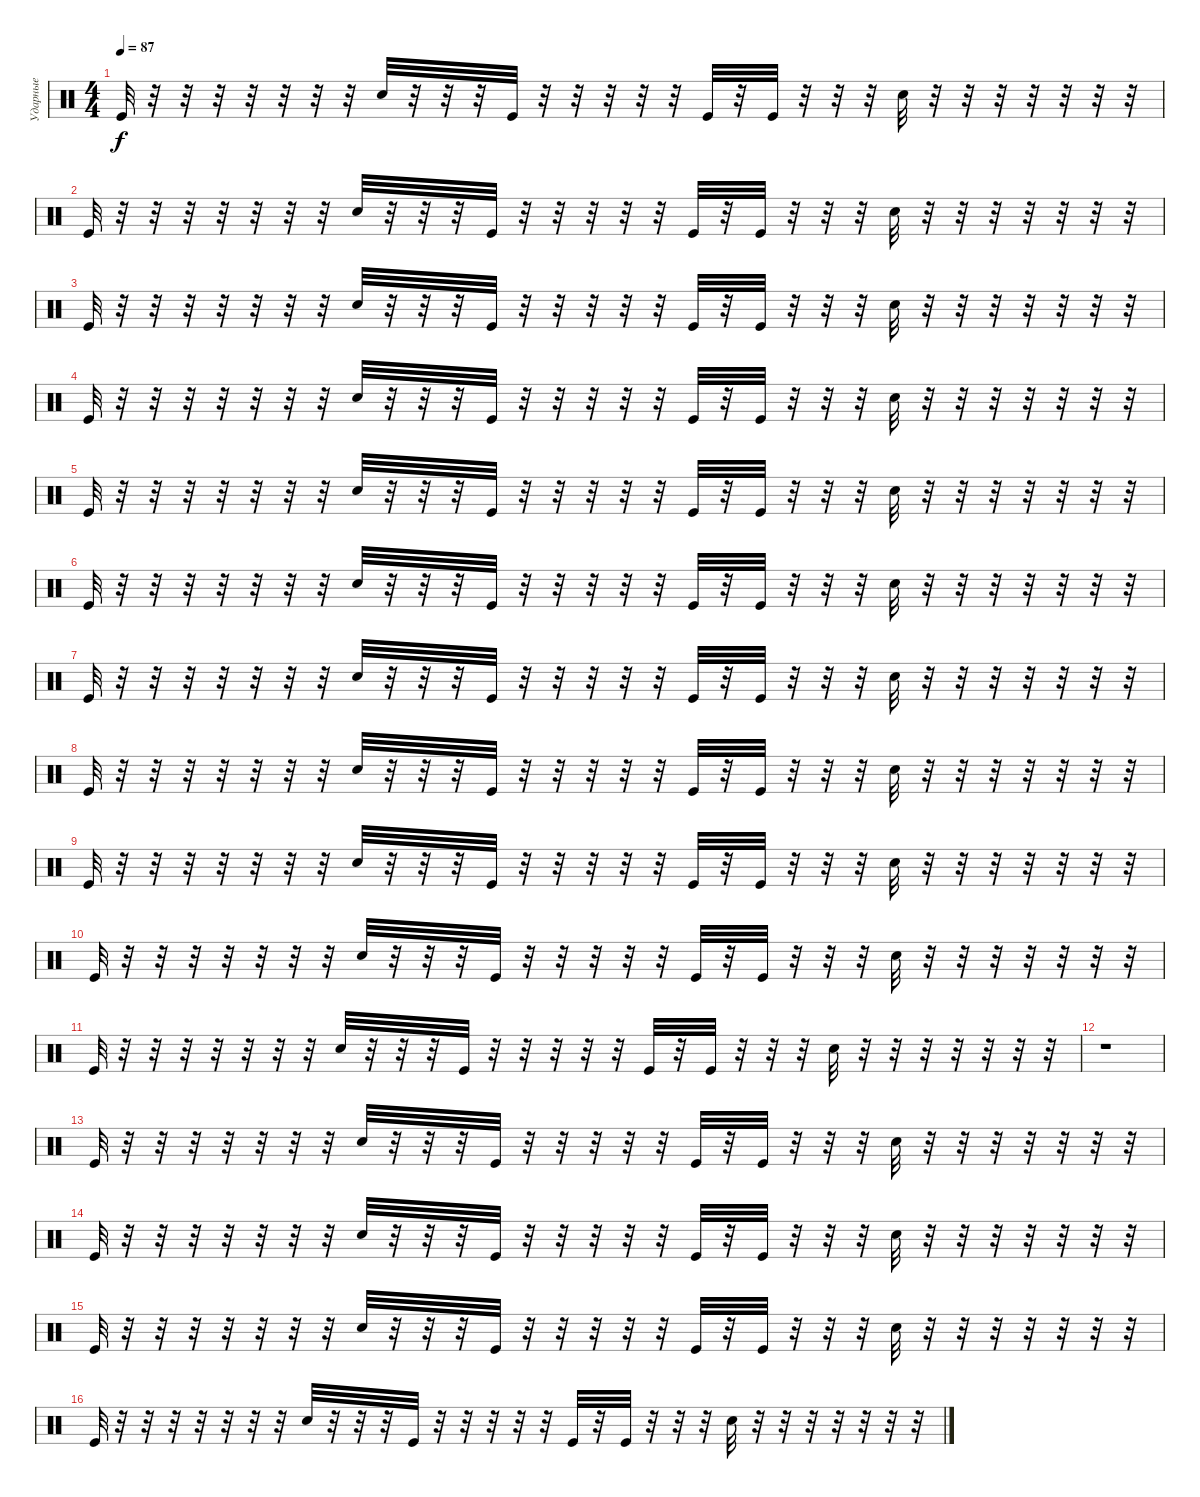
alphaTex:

\track ("Ударные" "Ударные") {instrument percussion}
\staff {score}
\articulation defaults
\ts (4 4)
\tempo 87
\clef neutral
\ks c "Kick (hit)".32{dy f}
r.32 r.32 r.32 r.32 r.32 r.32 r.32 "Hand Clap (hit)".32 r.32 r.32 r.32 "Kick (hit)".32 r.32 r.32 r.32 r.32 r.32 "Kick (hit)".32 r.32 "Kick (hit)".32 r.32 r.32 r.32 "Hand Clap (hit)".32 r.32 r.32 r.32 r.32 r.32 r.32 r.32 |
"Kick (hit)".32 r.32 r.32 r.32 r.32 r.32 r.32 r.32 "Hand Clap (hit)".32 r.32 r.32 r.32 "Kick (hit)".32 r.32 r.32 r.32 r.32 r.32 "Kick (hit)".32 r.32 "Kick (hit)".32 r.32 r.32 r.32 "Hand Clap (hit)".32 r.32 r.32 r.32 r.32 r.32 r.32 r.32 |
"Kick (hit)".32 r.32 r.32 r.32 r.32 r.32 r.32 r.32 "Hand Clap (hit)".32 r.32 r.32 r.32 "Kick (hit)".32 r.32 r.32 r.32 r.32 r.32 "Kick (hit)".32 r.32 "Kick (hit)".32 r.32 r.32 r.32 "Hand Clap (hit)".32 r.32 r.32 r.32 r.32 r.32 r.32 r.32 |
"Kick (hit)".32 r.32 r.32 r.32 r.32 r.32 r.32 r.32 "Hand Clap (hit)".32 r.32 r.32 r.32 "Kick (hit)".32 r.32 r.32 r.32 r.32 r.32 "Kick (hit)".32 r.32 "Kick (hit)".32 r.32 r.32 r.32 "Hand Clap (hit)".32 r.32 r.32 r.32 r.32 r.32 r.32 r.32 |
"Kick (hit)".32 r.32 r.32 r.32 r.32 r.32 r.32 r.32 "Hand Clap (hit)".32 r.32 r.32 r.32 "Kick (hit)".32 r.32 r.32 r.32 r.32 r.32 "Kick (hit)".32 r.32 "Kick (hit)".32 r.32 r.32 r.32 "Hand Clap (hit)".32 r.32 r.32 r.32 r.32 r.32 r.32 r.32 |
"Kick (hit)".32 r.32 r.32 r.32 r.32 r.32 r.32 r.32 "Hand Clap (hit)".32 r.32 r.32 r.32 "Kick (hit)".32 r.32 r.32 r.32 r.32 r.32 "Kick (hit)".32 r.32 "Kick (hit)".32 r.32 r.32 r.32 "Hand Clap (hit)".32 r.32 r.32 r.32 r.32 r.32 r.32 r.32 |
"Kick (hit)".32 r.32 r.32 r.32 r.32 r.32 r.32 r.32 "Hand Clap (hit)".32 r.32 r.32 r.32 "Kick (hit)".32 r.32 r.32 r.32 r.32 r.32 "Kick (hit)".32 r.32 "Kick (hit)".32 r.32 r.32 r.32 "Hand Clap (hit)".32 r.32 r.32 r.32 r.32 r.32 r.32 r.32 |
"Kick (hit)".32 r.32 r.32 r.32 r.32 r.32 r.32 r.32 "Hand Clap (hit)".32 r.32 r.32 r.32 "Kick (hit)".32 r.32 r.32 r.32 r.32 r.32 "Kick (hit)".32 r.32 "Kick (hit)".32 r.32 r.32 r.32 "Hand Clap (hit)".32 r.32 r.32 r.32 r.32 r.32 r.32 r.32 |
"Kick (hit)".32 r.32 r.32 r.32 r.32 r.32 r.32 r.32 "Hand Clap (hit)".32 r.32 r.32 r.32 "Kick (hit)".32 r.32 r.32 r.32 r.32 r.32 "Kick (hit)".32 r.32 "Kick (hit)".32 r.32 r.32 r.32 "Hand Clap (hit)".32 r.32 r.32 r.32 r.32 r.32 r.32 r.32 |
"Kick (hit)".32 r.32 r.32 r.32 r.32 r.32 r.32 r.32 "Hand Clap (hit)".32 r.32 r.32 r.32 "Kick (hit)".32 r.32 r.32 r.32 r.32 r.32 "Kick (hit)".32 r.32 "Kick (hit)".32 r.32 r.32 r.32 "Hand Clap (hit)".32 r.32 r.32 r.32 r.32 r.32 r.32 r.32 |
"Kick (hit)".32 r.32 r.32 r.32 r.32 r.32 r.32 r.32 "Hand Clap (hit)".32 r.32 r.32 r.32 "Kick (hit)".32 r.32 r.32 r.32 r.32 r.32 "Kick (hit)".32 r.32 "Kick (hit)".32 r.32 r.32 r.32 "Hand Clap (hit)".32 r.32 r.32 r.32 r.32 r.32 r.32 r.32 |
r.1 |
"Kick (hit)".32 r.32 r.32 r.32 r.32 r.32 r.32 r.32 "Hand Clap (hit)".32 r.32 r.32 r.32 "Kick (hit)".32 r.32 r.32 r.32 r.32 r.32 "Kick (hit)".32 r.32 "Kick (hit)".32 r.32 r.32 r.32 "Hand Clap (hit)".32 r.32 r.32 r.32 r.32 r.32 r.32 r.32 |
"Kick (hit)".32 r.32 r.32 r.32 r.32 r.32 r.32 r.32 "Hand Clap (hit)".32 r.32 r.32 r.32 "Kick (hit)".32 r.32 r.32 r.32 r.32 r.32 "Kick (hit)".32 r.32 "Kick (hit)".32 r.32 r.32 r.32 "Hand Clap (hit)".32 r.32 r.32 r.32 r.32 r.32 r.32 r.32 |
"Kick (hit)".32 r.32 r.32 r.32 r.32 r.32 r.32 r.32 "Hand Clap (hit)".32 r.32 r.32 r.32 "Kick (hit)".32 r.32 r.32 r.32 r.32 r.32 "Kick (hit)".32 r.32 "Kick (hit)".32 r.32 r.32 r.32 "Hand Clap (hit)".32 r.32 r.32 r.32 r.32 r.32 r.32 r.32 |
"Kick (hit)".32 r.32 r.32 r.32 r.32 r.32 r.32 r.32 "Hand Clap (hit)".32 r.32 r.32 r.32 "Kick (hit)".32 r.32 r.32 r.32 r.32 r.32 "Kick (hit)".32 r.32 "Kick (hit)".32 r.32 r.32 r.32 "Hand Clap (hit)".32 r.32 r.32 r.32 r.32 r.32 r.32 r.32
